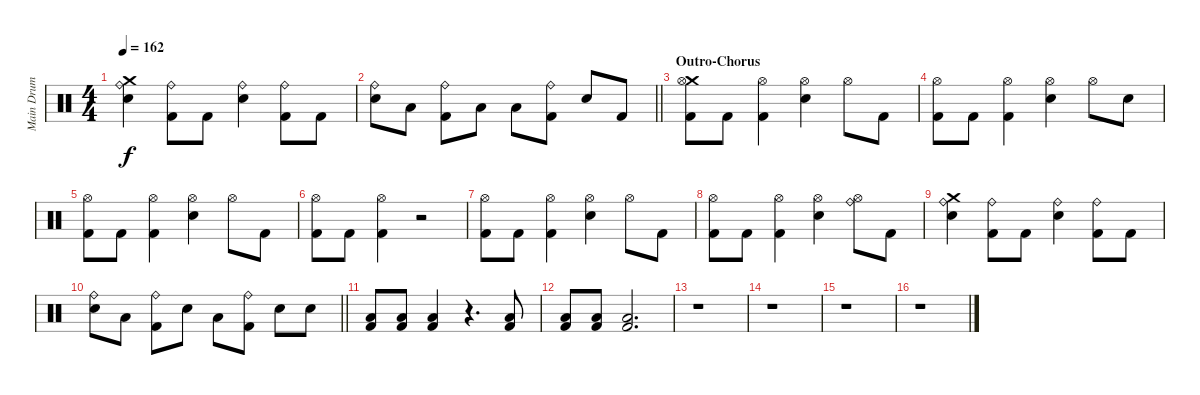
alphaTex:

\track ("Main Drum Track" "Main Drum ") {instrument percussion}
\staff {score}
\articulation defaults
\ts (4 4)
\tempo 162
\clef neutral
\ks c
("Ride (bell)" "Crash medium (hit)" "Electric Snare (hit)").4{dy f} ("Ride (bell)" "Kick (hit) 2").8 "Kick (hit) 2".8 ("Ride (bell)" "Electric Snare (hit)").4 ("Ride (bell)" "Kick (hit) 2").8 "Kick (hit) 2".8 |
\barLineRight lightlight
("Ride (bell)" "Electric Snare (hit)").8 "Low Floor Tom (hit)".8 ("Ride (bell)" "Kick (hit) 2").8 "Low Tom (hit)".8 "Low Floor Tom (hit)".8 ("Ride (bell)" "Kick (hit) 2").8 "Electric Snare (hit)".8 "Kick (hit) 2".8 |
\section ("" "Outro-Chorus")
("Crash medium (hit)" "Hi-Hat (open)" "Kick (hit) 2").8 "Kick (hit) 2".8 ("Hi-Hat (open)" "Kick (hit) 2").4 ("Hi-Hat (open)" "Electric Snare (hit)").4 "Hi-Hat (open)".8 "Kick (hit) 2".8 |
("Hi-Hat (open)" "Kick (hit) 2").8 "Kick (hit) 2".8 ("Hi-Hat (open)" "Kick (hit) 2").4 ("Hi-Hat (open)" "Electric Snare (hit)").4 "Hi-Hat (open)".8 "Electric Snare (hit)".8 |
("Hi-Hat (open)" "Kick (hit) 2").8 "Kick (hit) 2".8 ("Hi-Hat (open)" "Kick (hit) 2").4 ("Hi-Hat (open)" "Electric Snare (hit)").4 "Hi-Hat (open)".8 "Kick (hit) 2".8 |
("Hi-Hat (open)" "Kick (hit) 2").8 "Kick (hit) 2".8 ("Hi-Hat (open)" "Kick (hit) 2").4 r.2 |
("Hi-Hat (open)" "Kick (hit) 2").8 "Kick (hit) 2".8 ("Hi-Hat (open)" "Kick (hit) 2").4 ("Hi-Hat (open)" "Electric Snare (hit)").4 "Hi-Hat (open)".8 "Kick (hit) 2".8 |
("Hi-Hat (open)" "Kick (hit) 2").8 "Kick (hit) 2".8 ("Hi-Hat (open)" "Kick (hit) 2").4 ("Hi-Hat (open)" "Electric Snare (hit)").4 ("Ride (bell)" "Hi-Hat (open)").8 "Kick (hit) 2".8 |
("Ride (bell)" "Crash medium (hit)" "Electric Snare (hit)").4 ("Ride (bell)" "Kick (hit) 2").8 "Kick (hit) 2".8 ("Ride (bell)" "Electric Snare (hit)").4 ("Ride (bell)" "Kick (hit) 2").8 "Kick (hit) 2".8 |
\barLineRight lightlight
("Ride (bell)" "Electric Snare (hit)").8 "Low Floor Tom (hit)".8 ("Ride (bell)" "Kick (hit) 2").8 "Electric Snare (hit)".8 "Low Floor Tom (hit)".8 ("Ride (bell)" "Kick (hit) 2").8 "Electric Snare (hit)".8 "Electric Snare (hit)".8 |
("Low Floor Tom (hit)" "Kick (hit) 2").8 ("Low Floor Tom (hit)" "Kick (hit) 2").8 ("Low Floor Tom (hit)" "Kick (hit) 2").4 r.4{d} ("Low Floor Tom (hit)" "Kick (hit) 2").8 |
("Low Floor Tom (hit)" "Kick (hit) 2").8 ("Low Floor Tom (hit)" "Kick (hit) 2").8 ("Low Floor Tom (hit)" "Kick (hit) 2").2{d} |
r.1 |
r.1 |
r.1 |
r.1
